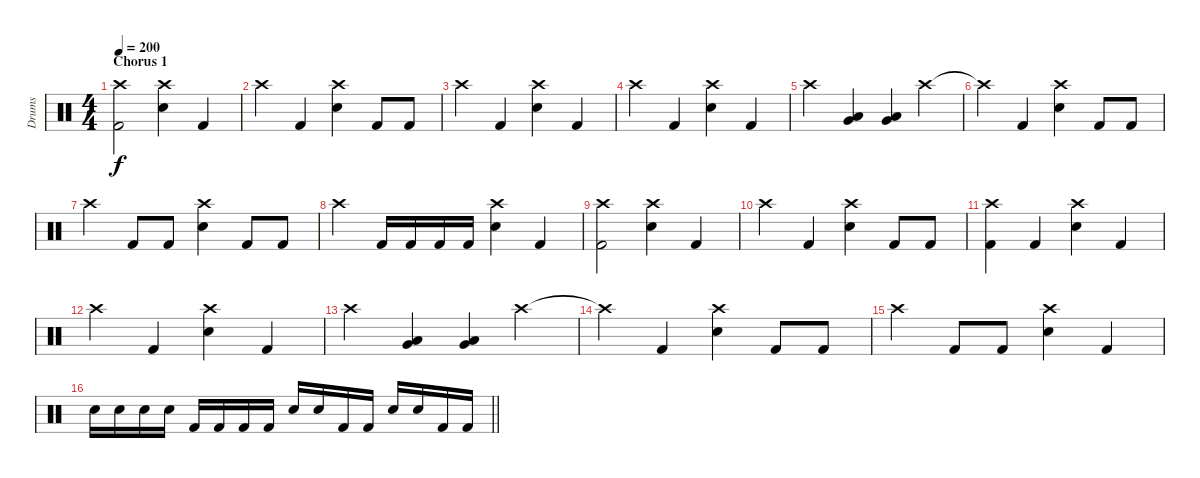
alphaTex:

\track ("Drums" "Drums") {instrument percussion}
\staff {score}
\articulation defaults
\ts (4 4)
\section ("" "Chorus 1")
\tempo 200
\clef neutral
\ks c
("Crash high (hit)" "Kick (hit) 2").2{dy f} ("Crash high (hit)" "Electric Snare (hit)").4 "Kick (hit) 2".4 |
"Crash high (hit)".4 "Kick (hit) 2".4 ("Crash high (hit)" "Electric Snare (hit)").4 "Kick (hit) 2".8 "Kick (hit) 2".8 |
"Crash high (hit)".4 "Kick (hit) 2".4 ("Crash high (hit)" "Electric Snare (hit)").4 "Kick (hit) 2".4 |
"Crash high (hit)".4 "Kick (hit) 2".4 ("Crash high (hit)" "Electric Snare (hit)").4 "Kick (hit) 2".4 |
"Crash high (hit)".4 ("Very Low Tom (hit)" "Low Floor Tom (hit)").4 ("Very Low Tom (hit)" "Low Floor Tom (hit)").4 "Crash high (hit)".4 |
"Crash high (hit)"{t}.4 "Kick (hit) 2".4 ("Crash high (hit)" "Electric Snare (hit)").4 "Kick (hit) 2".8 "Kick (hit) 2".8 |
"Crash high (hit)".4 "Kick (hit) 2".8 "Kick (hit) 2".8 ("Crash high (hit)" "Electric Snare (hit)").4 "Kick (hit) 2".8 "Kick (hit) 2".8 |
"Crash high (hit)".4 "Kick (hit) 2".16 "Kick (hit) 2".16 "Kick (hit) 2".16 "Kick (hit) 2".16 ("Crash high (hit)" "Electric Snare (hit)").4 "Kick (hit) 2".4 |
("Crash high (hit)" "Kick (hit) 2").2 ("Crash high (hit)" "Electric Snare (hit)").4 "Kick (hit) 2".4 |
"Crash high (hit)".4 "Kick (hit) 2".4 ("Crash high (hit)" "Electric Snare (hit)").4 "Kick (hit) 2".8 "Kick (hit) 2".8 |
("Crash high (hit)" "Kick (hit) 2").4 "Kick (hit) 2".4 ("Crash high (hit)" "Electric Snare (hit)").4 "Kick (hit) 2".4 |
"Crash high (hit)".4 "Kick (hit) 2".4 ("Crash high (hit)" "Electric Snare (hit)").4 "Kick (hit) 2".4 |
"Crash high (hit)".4 ("Very Low Tom (hit)" "Low Floor Tom (hit)").4 ("Very Low Tom (hit)" "Low Floor Tom (hit)").4 "Crash high (hit)".4 |
"Crash high (hit)"{t}.4 "Kick (hit) 2".4 ("Crash high (hit)" "Electric Snare (hit)").4 "Kick (hit) 2".8 "Kick (hit) 2".8 |
"Crash high (hit)".4 "Kick (hit) 2".8 "Kick (hit) 2".8 ("Crash high (hit)" "Electric Snare (hit)").4 "Kick (hit) 2".4 |
\barLineRight lightlight "Electric Snare (hit)".16 "Electric Snare (hit)".16 "Electric Snare (hit)".16 "Electric Snare (hit)".16 "Kick (hit) 2".16 "Kick (hit) 2".16 "Kick (hit) 2".16 "Kick (hit) 2".16 "Electric Snare (hit)".16 "Electric Snare (hit)".16 "Kick (hit) 2".16 "Kick (hit) 2".16 "Electric Snare (hit)".16 "Electric Snare (hit)".16 "Kick (hit) 2".16 "Kick (hit) 2".16
